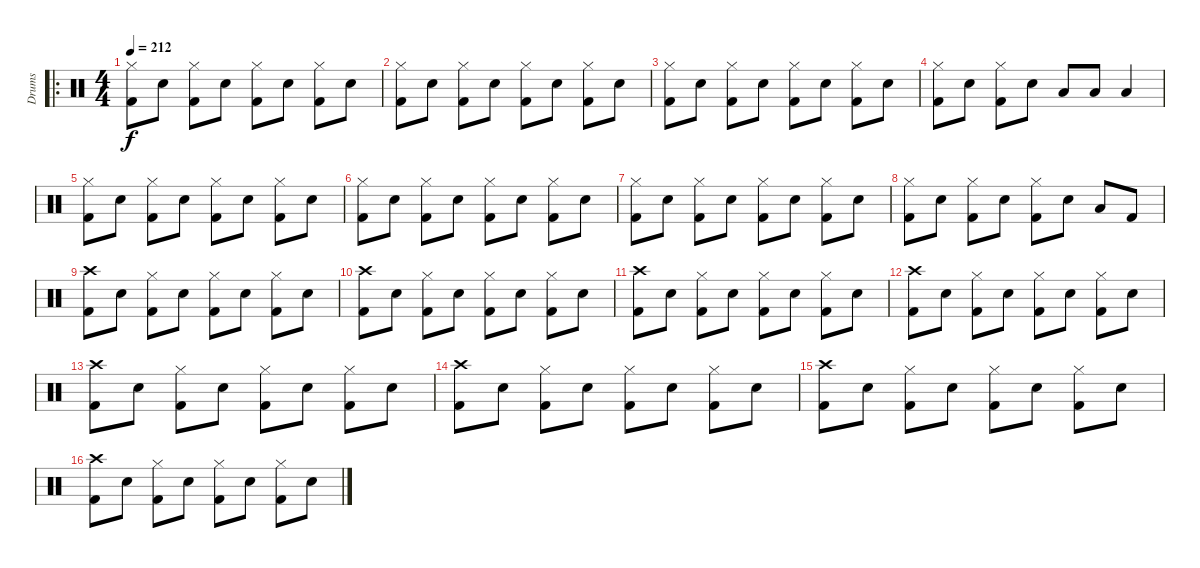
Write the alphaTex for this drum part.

\track ("Drums" "Drums") {instrument percussion}
\staff {score}
\articulation defaults
\ro
\ts (4 4)
\tempo 212
\clef neutral
\ks c
("Hi-Hat (closed)" "Kick (hit) 2").8{dy f} "Snare (hit) 2".8 ("Hi-Hat (closed)" "Kick (hit) 2").8 "Snare (hit) 2".8 ("Hi-Hat (closed)" "Kick (hit) 2").8 "Snare (hit) 2".8 ("Hi-Hat (closed)" "Kick (hit) 2").8 "Snare (hit) 2".8 |
("Hi-Hat (closed)" "Kick (hit) 2").8 "Snare (hit) 2".8 ("Hi-Hat (closed)" "Kick (hit) 2").8 "Snare (hit) 2".8 ("Hi-Hat (closed)" "Kick (hit) 2").8 "Snare (hit) 2".8 ("Hi-Hat (closed)" "Kick (hit) 2").8 "Snare (hit) 2".8 |
("Hi-Hat (closed)" "Kick (hit) 2").8 "Snare (hit) 2".8 ("Hi-Hat (closed)" "Kick (hit) 2").8 "Snare (hit) 2".8 ("Hi-Hat (closed)" "Kick (hit) 2").8 "Snare (hit) 2".8 ("Hi-Hat (closed)" "Kick (hit) 2").8 "Snare (hit) 2".8 |
("Hi-Hat (closed)" "Kick (hit) 2").8 "Snare (hit) 2".8 ("Hi-Hat (closed)" "Kick (hit) 2").8 "Snare (hit) 2".8 "Low Tom (hit)".8 "Low Tom (hit)".8 "Low Tom (hit)".4 |
("Hi-Hat (closed)" "Kick (hit) 2").8 "Snare (hit) 2".8 ("Hi-Hat (closed)" "Kick (hit) 2").8 "Snare (hit) 2".8 ("Hi-Hat (closed)" "Kick (hit) 2").8 "Snare (hit) 2".8 ("Hi-Hat (closed)" "Kick (hit) 2").8 "Snare (hit) 2".8 |
("Hi-Hat (closed)" "Kick (hit) 2").8 "Snare (hit) 2".8 ("Hi-Hat (closed)" "Kick (hit) 2").8 "Snare (hit) 2".8 ("Hi-Hat (closed)" "Kick (hit) 2").8 "Snare (hit) 2".8 ("Hi-Hat (closed)" "Kick (hit) 2").8 "Snare (hit) 2".8 |
("Hi-Hat (closed)" "Kick (hit) 2").8 "Snare (hit) 2".8 ("Hi-Hat (closed)" "Kick (hit) 2").8 "Snare (hit) 2".8 ("Hi-Hat (closed)" "Kick (hit) 2").8 "Snare (hit) 2".8 ("Hi-Hat (closed)" "Kick (hit) 2").8 "Snare (hit) 2".8 |
("Hi-Hat (closed)" "Kick (hit) 2").8 "Snare (hit) 2".8 ("Hi-Hat (closed)" "Kick (hit) 2").8 "Snare (hit) 2".8 ("Hi-Hat (closed)" "Kick (hit) 2").8 "Snare (hit) 2".8 "Low Tom (hit)".8 "Kick (hit) 2".8 |
("Crash high (hit)" "Kick (hit) 2").8 "Snare (hit) 2".8 ("Hi-Hat (closed)" "Kick (hit) 2").8 "Snare (hit) 2".8 ("Hi-Hat (closed)" "Kick (hit) 2").8 "Snare (hit) 2".8 ("Hi-Hat (closed)" "Kick (hit) 2").8 "Snare (hit) 2".8 |
("Crash high (hit)" "Kick (hit) 2").8 "Snare (hit) 2".8 ("Hi-Hat (closed)" "Kick (hit) 2").8 "Snare (hit) 2".8 ("Hi-Hat (closed)" "Kick (hit) 2").8 "Snare (hit) 2".8 ("Hi-Hat (closed)" "Kick (hit) 2").8 "Snare (hit) 2".8 |
("Crash high (hit)" "Kick (hit) 2").8 "Snare (hit) 2".8 ("Hi-Hat (closed)" "Kick (hit) 2").8 "Snare (hit) 2".8 ("Hi-Hat (closed)" "Kick (hit) 2").8 "Snare (hit) 2".8 ("Hi-Hat (closed)" "Kick (hit) 2").8 "Snare (hit) 2".8 |
("Crash high (hit)" "Kick (hit) 2").8 "Snare (hit) 2".8 ("Hi-Hat (closed)" "Kick (hit) 2").8 "Snare (hit) 2".8 ("Hi-Hat (closed)" "Kick (hit) 2").8 "Snare (hit) 2".8 ("Hi-Hat (closed)" "Kick (hit) 2").8 "Snare (hit) 2".8 |
("Crash high (hit)" "Kick (hit) 2").8 "Snare (hit) 2".8 ("Hi-Hat (closed)" "Kick (hit) 2").8 "Snare (hit) 2".8 ("Hi-Hat (closed)" "Kick (hit) 2").8 "Snare (hit) 2".8 ("Hi-Hat (closed)" "Kick (hit) 2").8 "Snare (hit) 2".8 |
("Crash high (hit)" "Kick (hit) 2").8 "Snare (hit) 2".8 ("Hi-Hat (closed)" "Kick (hit) 2").8 "Snare (hit) 2".8 ("Hi-Hat (closed)" "Kick (hit) 2").8 "Snare (hit) 2".8 ("Hi-Hat (closed)" "Kick (hit) 2").8 "Snare (hit) 2".8 |
("Crash high (hit)" "Kick (hit) 2").8 "Snare (hit) 2".8 ("Hi-Hat (closed)" "Kick (hit) 2").8 "Snare (hit) 2".8 ("Hi-Hat (closed)" "Kick (hit) 2").8 "Snare (hit) 2".8 ("Hi-Hat (closed)" "Kick (hit) 2").8 "Snare (hit) 2".8 |
("Crash high (hit)" "Kick (hit) 2").8 "Snare (hit) 2".8 ("Hi-Hat (closed)" "Kick (hit) 2").8 "Snare (hit) 2".8 ("Hi-Hat (closed)" "Kick (hit) 2").8 "Snare (hit) 2".8 ("Hi-Hat (closed)" "Kick (hit) 2").8 "Snare (hit) 2".8
